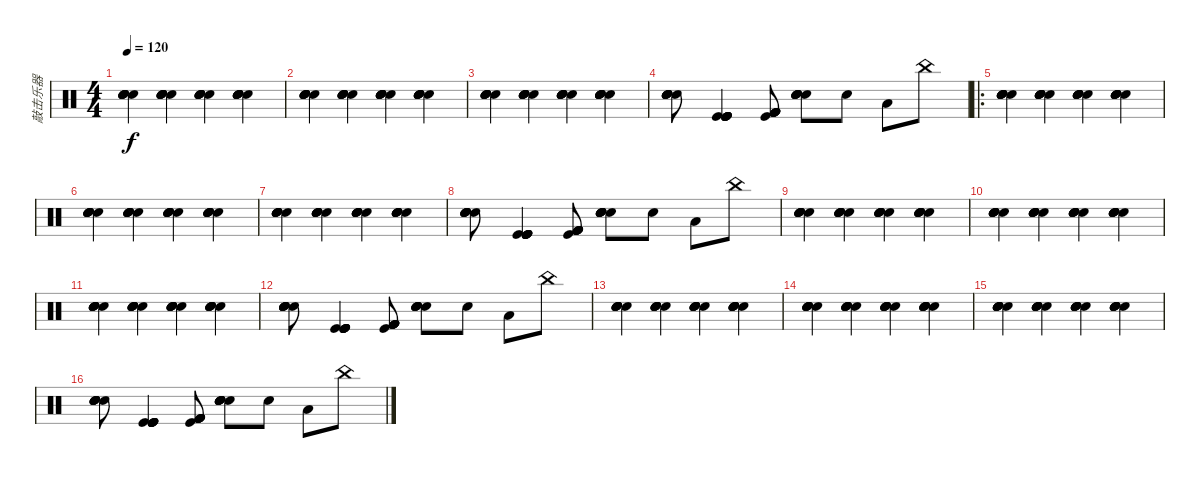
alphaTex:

\track ("敲击乐器" "敲击乐器") {instrument percussion}
\staff {score}
\articulation defaults
\ts (4 4)
\tempo 120
\clef neutral
\ks c
("Hand Clap (hit)" "Hand Clap (hit)" "Hand Clap (hit)" "Hand Clap (hit)" "Hand Clap (hit)" "Hand Clap (hit)").4{dy f} ("Snare (hit) 2" "Snare (hit) 2" "Snare (hit) 2" "Snare (hit) 2" "Snare (hit) 2" "Snare (hit) 2").4 ("Hand Clap (hit)" "Hand Clap (hit)" "Hand Clap (hit)" "Hand Clap (hit)" "Hand Clap (hit)" "Hand Clap (hit)").4 ("Snare (hit) 2" "Snare (hit) 2" "Snare (hit) 2" "Snare (hit) 2" "Snare (hit) 2" "Snare (hit) 2").4 |
("Hand Clap (hit)" "Hand Clap (hit)" "Hand Clap (hit)" "Hand Clap (hit)" "Hand Clap (hit)" "Hand Clap (hit)").4 ("Snare (hit) 2" "Snare (hit) 2" "Snare (hit) 2" "Snare (hit) 2" "Snare (hit) 2" "Snare (hit) 2").4 ("Hand Clap (hit)" "Hand Clap (hit)" "Hand Clap (hit)" "Hand Clap (hit)" "Hand Clap (hit)" "Hand Clap (hit)").4 ("Snare (hit) 2" "Snare (hit) 2" "Snare (hit) 2" "Snare (hit) 2" "Snare (hit) 2" "Snare (hit) 2").4 |
("Hand Clap (hit)" "Hand Clap (hit)" "Hand Clap (hit)" "Hand Clap (hit)" "Hand Clap (hit)" "Hand Clap (hit)").4 ("Snare (hit) 2" "Snare (hit) 2" "Snare (hit) 2" "Snare (hit) 2" "Snare (hit) 2" "Snare (hit) 2").4 ("Hand Clap (hit)" "Hand Clap (hit)" "Hand Clap (hit)" "Hand Clap (hit)" "Hand Clap (hit)" "Hand Clap (hit)").4 ("Snare (hit) 2" "Snare (hit) 2" "Snare (hit) 2" "Snare (hit) 2" "Snare (hit) 2" "Snare (hit) 2").4 |
("Snare (hit) 2" "Hand Clap (hit)" "Hand Clap (hit)" "Hand Clap (hit)" "Hand Clap (hit)" "Hand Clap (hit)").8 ("Kick (hit)" "Kick (hit)" "Kick (hit)" "Kick (hit)" "Kick (hit)" "Kick (hit)").4 ("Kick (hit) 2" "Kick (hit) 2" "Kick (hit) 2" "Kick (hit)" "Kick (hit) 2" "Kick (hit) 2").8 ("Snare (hit) 2" "Snare (hit) 2" "Snare (hit) 2" "Snare (hit) 2" "Snare (hit) 2" "Snare (hit) 2").8 "Snare (hit) 2".8 "Low Floor Tom (hit)".8 "China (hit)".8 |
\ro
("Hand Clap (hit)" "Hand Clap (hit)" "Hand Clap (hit)" "Hand Clap (hit)" "Hand Clap (hit)" "Hand Clap (hit)").4 ("Snare (hit) 2" "Snare (hit) 2" "Snare (hit) 2" "Snare (hit) 2" "Snare (hit) 2" "Snare (hit) 2").4 ("Hand Clap (hit)" "Hand Clap (hit)" "Hand Clap (hit)" "Hand Clap (hit)" "Hand Clap (hit)" "Hand Clap (hit)").4 ("Snare (hit) 2" "Snare (hit) 2" "Snare (hit) 2" "Snare (hit) 2" "Snare (hit) 2" "Snare (hit) 2").4 |
("Hand Clap (hit)" "Hand Clap (hit)" "Hand Clap (hit)" "Hand Clap (hit)" "Hand Clap (hit)" "Hand Clap (hit)").4 ("Snare (hit) 2" "Snare (hit) 2" "Snare (hit) 2" "Snare (hit) 2" "Snare (hit) 2" "Snare (hit) 2").4 ("Hand Clap (hit)" "Hand Clap (hit)" "Hand Clap (hit)" "Hand Clap (hit)" "Hand Clap (hit)" "Hand Clap (hit)").4 ("Snare (hit) 2" "Snare (hit) 2" "Snare (hit) 2" "Snare (hit) 2" "Snare (hit) 2" "Snare (hit) 2").4 |
("Hand Clap (hit)" "Hand Clap (hit)" "Hand Clap (hit)" "Hand Clap (hit)" "Hand Clap (hit)" "Hand Clap (hit)").4 ("Snare (hit) 2" "Snare (hit) 2" "Snare (hit) 2" "Snare (hit) 2" "Snare (hit) 2" "Snare (hit) 2").4 ("Hand Clap (hit)" "Hand Clap (hit)" "Hand Clap (hit)" "Hand Clap (hit)" "Hand Clap (hit)" "Hand Clap (hit)").4 ("Snare (hit) 2" "Snare (hit) 2" "Snare (hit) 2" "Snare (hit) 2" "Snare (hit) 2" "Snare (hit) 2").4 |
("Snare (hit) 2" "Hand Clap (hit)" "Hand Clap (hit)" "Hand Clap (hit)" "Hand Clap (hit)" "Hand Clap (hit)").8 ("Kick (hit)" "Kick (hit)" "Kick (hit)" "Kick (hit)" "Kick (hit)" "Kick (hit)").4 ("Kick (hit) 2" "Kick (hit) 2" "Kick (hit) 2" "Kick (hit)" "Kick (hit) 2" "Kick (hit) 2").8 ("Snare (hit) 2" "Snare (hit) 2" "Snare (hit) 2" "Snare (hit) 2" "Snare (hit) 2" "Snare (hit) 2").8 "Snare (hit) 2".8 "Low Floor Tom (hit)".8 "China (hit)".8 |
("Hand Clap (hit)" "Hand Clap (hit)" "Hand Clap (hit)" "Hand Clap (hit)" "Hand Clap (hit)" "Hand Clap (hit)").4 ("Snare (hit) 2" "Snare (hit) 2" "Snare (hit) 2" "Snare (hit) 2" "Snare (hit) 2" "Snare (hit) 2").4 ("Hand Clap (hit)" "Hand Clap (hit)" "Hand Clap (hit)" "Hand Clap (hit)" "Hand Clap (hit)" "Hand Clap (hit)").4 ("Snare (hit) 2" "Snare (hit) 2" "Snare (hit) 2" "Snare (hit) 2" "Snare (hit) 2" "Snare (hit) 2").4 |
("Hand Clap (hit)" "Hand Clap (hit)" "Hand Clap (hit)" "Hand Clap (hit)" "Hand Clap (hit)" "Hand Clap (hit)").4 ("Snare (hit) 2" "Snare (hit) 2" "Snare (hit) 2" "Snare (hit) 2" "Snare (hit) 2" "Snare (hit) 2").4 ("Hand Clap (hit)" "Hand Clap (hit)" "Hand Clap (hit)" "Hand Clap (hit)" "Hand Clap (hit)" "Hand Clap (hit)").4 ("Snare (hit) 2" "Snare (hit) 2" "Snare (hit) 2" "Snare (hit) 2" "Snare (hit) 2" "Snare (hit) 2").4 |
("Hand Clap (hit)" "Hand Clap (hit)" "Hand Clap (hit)" "Hand Clap (hit)" "Hand Clap (hit)" "Hand Clap (hit)").4 ("Snare (hit) 2" "Snare (hit) 2" "Snare (hit) 2" "Snare (hit) 2" "Snare (hit) 2" "Snare (hit) 2").4 ("Hand Clap (hit)" "Hand Clap (hit)" "Hand Clap (hit)" "Hand Clap (hit)" "Hand Clap (hit)" "Hand Clap (hit)").4 ("Snare (hit) 2" "Snare (hit) 2" "Snare (hit) 2" "Snare (hit) 2" "Snare (hit) 2" "Snare (hit) 2").4 |
("Snare (hit) 2" "Hand Clap (hit)" "Hand Clap (hit)" "Hand Clap (hit)" "Hand Clap (hit)" "Hand Clap (hit)").8 ("Kick (hit)" "Kick (hit)" "Kick (hit)" "Kick (hit)" "Kick (hit)" "Kick (hit)").4 ("Kick (hit) 2" "Kick (hit) 2" "Kick (hit) 2" "Kick (hit)" "Kick (hit) 2" "Kick (hit) 2").8 ("Snare (hit) 2" "Snare (hit) 2" "Snare (hit) 2" "Snare (hit) 2" "Snare (hit) 2" "Snare (hit) 2").8 "Snare (hit) 2".8 "Low Floor Tom (hit)".8 "China (hit)".8 |
("Hand Clap (hit)" "Hand Clap (hit)" "Hand Clap (hit)" "Hand Clap (hit)" "Hand Clap (hit)" "Hand Clap (hit)").4 ("Snare (hit) 2" "Snare (hit) 2" "Snare (hit) 2" "Snare (hit) 2" "Snare (hit) 2" "Snare (hit) 2").4 ("Hand Clap (hit)" "Hand Clap (hit)" "Hand Clap (hit)" "Hand Clap (hit)" "Hand Clap (hit)" "Hand Clap (hit)").4 ("Snare (hit) 2" "Snare (hit) 2" "Snare (hit) 2" "Snare (hit) 2" "Snare (hit) 2" "Snare (hit) 2").4 |
("Hand Clap (hit)" "Hand Clap (hit)" "Hand Clap (hit)" "Hand Clap (hit)" "Hand Clap (hit)" "Hand Clap (hit)").4 ("Snare (hit) 2" "Snare (hit) 2" "Snare (hit) 2" "Snare (hit) 2" "Snare (hit) 2" "Snare (hit) 2").4 ("Hand Clap (hit)" "Hand Clap (hit)" "Hand Clap (hit)" "Hand Clap (hit)" "Hand Clap (hit)" "Hand Clap (hit)").4 ("Snare (hit) 2" "Snare (hit) 2" "Snare (hit) 2" "Snare (hit) 2" "Snare (hit) 2" "Snare (hit) 2").4 |
("Hand Clap (hit)" "Hand Clap (hit)" "Hand Clap (hit)" "Hand Clap (hit)" "Hand Clap (hit)" "Hand Clap (hit)").4 ("Snare (hit) 2" "Snare (hit) 2" "Snare (hit) 2" "Snare (hit) 2" "Snare (hit) 2" "Snare (hit) 2").4 ("Hand Clap (hit)" "Hand Clap (hit)" "Hand Clap (hit)" "Hand Clap (hit)" "Hand Clap (hit)" "Hand Clap (hit)").4 ("Snare (hit) 2" "Snare (hit) 2" "Snare (hit) 2" "Snare (hit) 2" "Snare (hit) 2" "Snare (hit) 2").4 |
("Snare (hit) 2" "Hand Clap (hit)" "Hand Clap (hit)" "Hand Clap (hit)" "Hand Clap (hit)" "Hand Clap (hit)").8 ("Kick (hit)" "Kick (hit)" "Kick (hit)" "Kick (hit)" "Kick (hit)" "Kick (hit)").4 ("Kick (hit) 2" "Kick (hit) 2" "Kick (hit) 2" "Kick (hit)" "Kick (hit) 2" "Kick (hit) 2").8 ("Snare (hit) 2" "Snare (hit) 2" "Snare (hit) 2" "Snare (hit) 2" "Snare (hit) 2" "Snare (hit) 2").8 "Snare (hit) 2".8 "Low Floor Tom (hit)".8 "China (hit)".8
